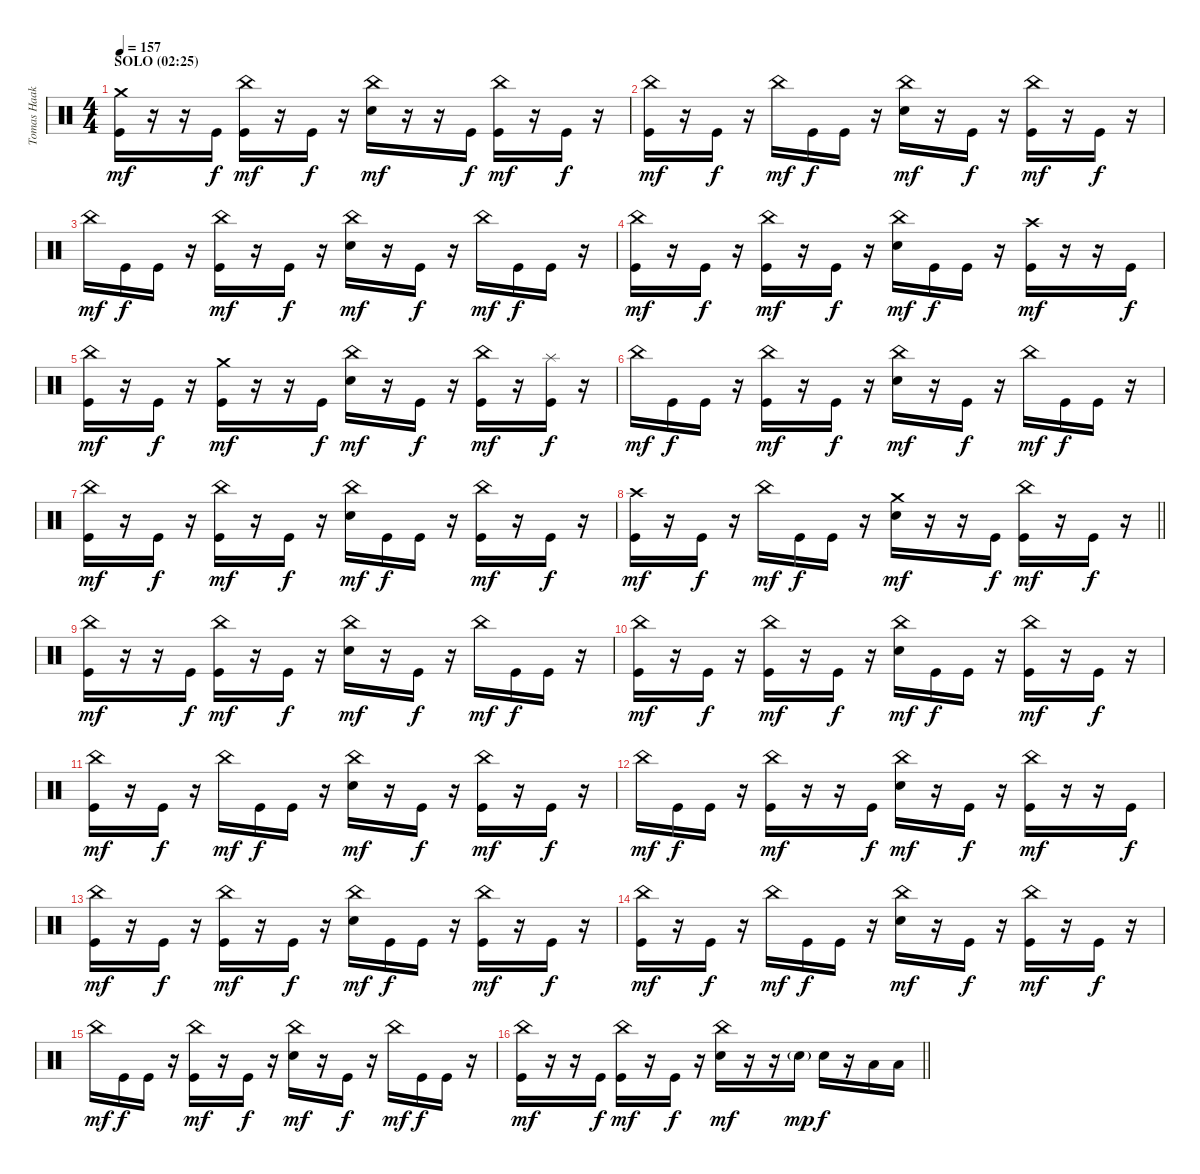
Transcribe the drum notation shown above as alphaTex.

\track ("Tomas Haake (Drums)" "Tomas Haak") {instrument percussion}
\staff {score}
\articulation defaults
\ts (4 4)
\section ("" "SOLO (02:25)")
\tempo 157
\clef neutral
\ks c
("Crash medium (hit)" "Kick (hit)").16{dy mf} r.16 r.16 "Kick (hit)".16{dy f} ("China (hit)" "Kick (hit)").16{dy mf} r.16 "Kick (hit)".16{dy f} r.16 ("China (hit)" "Electric Snare (hit)").16{dy mf} r.16 r.16 "Kick (hit)".16{dy f} ("China (hit)" "Kick (hit)").16{dy mf} r.16 "Kick (hit)".16{dy f} r.16 |
("China (hit)" "Kick (hit)").16{dy mf} r.16 "Kick (hit)".16{dy f} r.16 "China (hit)".16{dy mf} "Kick (hit)".16{dy f} "Kick (hit)".16 r.16 ("China (hit)" "Electric Snare (hit)").16{dy mf} r.16 "Kick (hit)".16{dy f} r.16 ("China (hit)" "Kick (hit)").16{dy mf} r.16 "Kick (hit)".16{dy f} r.16 |
"China (hit)".16{dy mf} "Kick (hit)".16{dy f} "Kick (hit)".16 r.16 ("China (hit)" "Kick (hit)").16{dy mf} r.16 "Kick (hit)".16{dy f} r.16 ("China (hit)" "Electric Snare (hit)").16{dy mf} r.16 "Kick (hit)".16{dy f} r.16 "China (hit)".16{dy mf} "Kick (hit)".16{dy f} "Kick (hit)".16 r.16 |
("China (hit)" "Kick (hit)").16{dy mf} r.16 "Kick (hit)".16{dy f} r.16 ("China (hit)" "Kick (hit)").16{dy mf} r.16 "Kick (hit)".16{dy f} r.16 ("China (hit)" "Electric Snare (hit)").16{dy mf} "Kick (hit)".16{dy f} "Kick (hit)".16 r.16 ("Crash high (hit)" "Kick (hit)").16{dy mf} r.16 r.16 "Kick (hit)".16{dy f} |
("China (hit)" "Kick (hit)").16{dy mf} r.16 "Kick (hit)".16{dy f} r.16 ("Crash medium (hit)" "Kick (hit)").16{dy mf} r.16 r.16 "Kick (hit)".16{dy f} ("China (hit)" "Electric Snare (hit)").16{dy mf} r.16 "Kick (hit)".16{dy f} r.16 ("China (hit)" "Kick (hit)").16{dy mf} r.16 ("Splash (hit)" "Kick (hit)").16{dy f} r.16 |
"China (hit)".16{dy mf} "Kick (hit)".16{dy f} "Kick (hit)".16 r.16 ("China (hit)" "Kick (hit)").16{dy mf} r.16 "Kick (hit)".16{dy f} r.16 ("China (hit)" "Electric Snare (hit)").16{dy mf} r.16 "Kick (hit)".16{dy f} r.16 "China (hit)".16{dy mf} "Kick (hit)".16{dy f} "Kick (hit)".16 r.16 |
("China (hit)" "Kick (hit)").16{dy mf} r.16 "Kick (hit)".16{dy f} r.16 ("China (hit)" "Kick (hit)").16{dy mf} r.16 "Kick (hit)".16{dy f} r.16 ("China (hit)" "Electric Snare (hit)").16{dy mf} "Kick (hit)".16{dy f} "Kick (hit)".16 r.16 ("China (hit)" "Kick (hit)").16{dy mf} r.16 "Kick (hit)".16{dy f} r.16 |
\barLineRight lightlight
("Crash high (hit)" "Kick (hit)").16{dy mf} r.16 "Kick (hit)".16{dy f} r.16 "China (hit)".16{dy mf} "Kick (hit)".16{dy f} "Kick (hit)".16 r.16 ("Crash medium (hit)" "Electric Snare (hit)").16{dy mf} r.16 r.16 "Kick (hit)".16{dy f} ("China (hit)" "Kick (hit)").16{dy mf} r.16 "Kick (hit)".16{dy f} r.16 |
("China (hit)" "Kick (hit)").16{dy mf} r.16 r.16 "Kick (hit)".16{dy f} ("China (hit)" "Kick (hit)").16{dy mf} r.16 "Kick (hit)".16{dy f} r.16 ("China (hit)" "Electric Snare (hit)").16{dy mf} r.16 "Kick (hit)".16{dy f} r.16 "China (hit)".16{dy mf} "Kick (hit)".16{dy f} "Kick (hit)".16 r.16 |
("China (hit)" "Kick (hit)").16{dy mf} r.16 "Kick (hit)".16{dy f} r.16 ("China (hit)" "Kick (hit)").16{dy mf} r.16 "Kick (hit)".16{dy f} r.16 ("China (hit)" "Electric Snare (hit)").16{dy mf} "Kick (hit)".16{dy f} "Kick (hit)".16 r.16 ("China (hit)" "Kick (hit)").16{dy mf} r.16 "Kick (hit)".16{dy f} r.16 |
("China (hit)" "Kick (hit)").16{dy mf} r.16 "Kick (hit)".16{dy f} r.16 "China (hit)".16{dy mf} "Kick (hit)".16{dy f} "Kick (hit)".16 r.16 ("China (hit)" "Electric Snare (hit)").16{dy mf} r.16 "Kick (hit)".16{dy f} r.16 ("China (hit)" "Kick (hit)").16{dy mf} r.16 "Kick (hit)".16{dy f} r.16 |
"China (hit)".16{dy mf} "Kick (hit)".16{dy f} "Kick (hit)".16 r.16 ("China (hit)" "Kick (hit)").16{dy mf} r.16 r.16 "Kick (hit)".16{dy f} ("China (hit)" "Electric Snare (hit)").16{dy mf} r.16 "Kick (hit)".16{dy f} r.16 ("China (hit)" "Kick (hit)").16{dy mf} r.16 r.16 "Kick (hit)".16{dy f} |
("China (hit)" "Kick (hit)").16{dy mf} r.16 "Kick (hit)".16{dy f} r.16 ("China (hit)" "Kick (hit)").16{dy mf} r.16 "Kick (hit)".16{dy f} r.16 ("China (hit)" "Electric Snare (hit)").16{dy mf} "Kick (hit)".16{dy f} "Kick (hit)".16 r.16 ("China (hit)" "Kick (hit)").16{dy mf} r.16 "Kick (hit)".16{dy f} r.16 |
("China (hit)" "Kick (hit)").16{dy mf} r.16 "Kick (hit)".16{dy f} r.16 "China (hit)".16{dy mf} "Kick (hit)".16{dy f} "Kick (hit)".16 r.16 ("China (hit)" "Electric Snare (hit)").16{dy mf} r.16 "Kick (hit)".16{dy f} r.16 ("China (hit)" "Kick (hit)").16{dy mf} r.16 "Kick (hit)".16{dy f} r.16 |
"China (hit)".16{dy mf} "Kick (hit)".16{dy f} "Kick (hit)".16 r.16 ("China (hit)" "Kick (hit)").16{dy mf} r.16 "Kick (hit)".16{dy f} r.16 ("China (hit)" "Electric Snare (hit)").16{dy mf} r.16 "Kick (hit)".16{dy f} r.16 "China (hit)".16{dy mf} "Kick (hit)".16{dy f} "Kick (hit)".16 r.16 |
\barLineRight lightlight
("China (hit)" "Kick (hit)").16{dy mf} r.16 r.16 "Kick (hit)".16{dy f} ("China (hit)" "Kick (hit)").16{dy mf} r.16 "Kick (hit)".16{dy f} r.16 ("China (hit)" "Electric Snare (hit)").16{dy mf} r.16 r.16 "Electric Snare (hit)"{g}.16{dy mp} "Electric Snare (hit)".16{dy f} r.16 "Low Floor Tom (hit)".16 "Low Floor Tom (hit)".16
